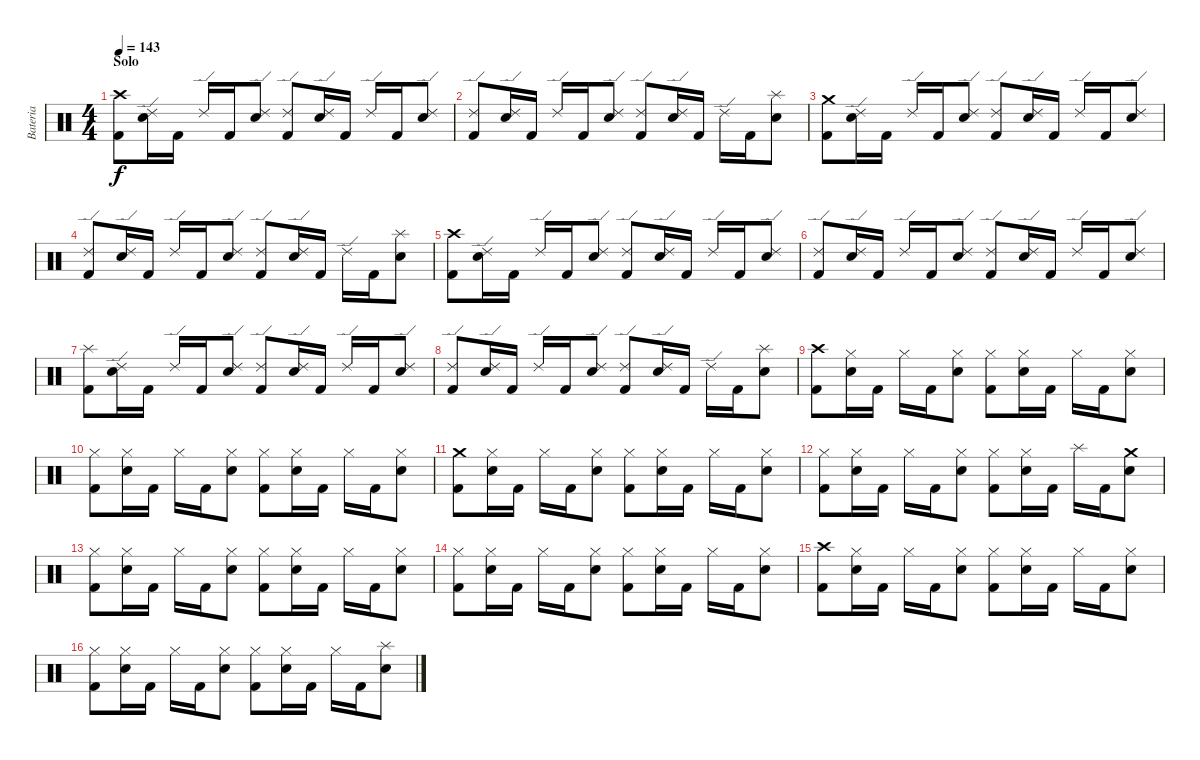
\track ("Bateria" "Bateria") {instrument percussion}
\staff {score}
\articulation defaults
\ts (4 4)
\section ("" "Solo")
\tempo 143
\clef neutral
\ks c
("Crash high (hit)" "Kick (hit) 2").8{dy f} ("Ride (edge) 2" "Snare (hit) 2").16 "Kick (hit) 2".16 "Ride (edge) 2".16 "Kick (hit) 2".16 ("Ride (edge) 2" "Snare (hit) 2").8 ("Ride (edge) 2" "Kick (hit) 2").8 ("Ride (edge) 2" "Snare (hit) 2").16 "Kick (hit) 2".16 "Ride (edge) 2".16 "Kick (hit) 2".16 ("Ride (edge) 2" "Snare (hit) 2").8 |
("Ride (edge) 2" "Kick (hit) 2").8 ("Ride (edge) 2" "Snare (hit) 2").16 "Kick (hit) 2".16 "Ride (edge) 2".16 "Kick (hit) 2".16 ("Ride (edge) 2" "Snare (hit) 2").8 ("Ride (edge) 2" "Kick (hit) 2").8 ("Ride (edge) 2" "Snare (hit) 2").16 "Kick (hit) 2".16 "Ride (edge) 2".16 "Kick (hit) 2".16 ("Splash (hit)" "Snare (hit) 2").8 |
("Crash medium (hit)" "Kick (hit) 2").8 ("Ride (edge) 2" "Snare (hit) 2").16 "Kick (hit) 2".16 "Ride (edge) 2".16 "Kick (hit) 2".16 ("Ride (edge) 2" "Snare (hit) 2").8 ("Ride (edge) 2" "Kick (hit) 2").8 ("Ride (edge) 2" "Snare (hit) 2").16 "Kick (hit) 2".16 "Ride (edge) 2".16 "Kick (hit) 2".16 ("Ride (edge) 2" "Snare (hit) 2").8 |
("Ride (edge) 2" "Kick (hit) 2").8 ("Ride (edge) 2" "Snare (hit) 2").16 "Kick (hit) 2".16 "Ride (edge) 2".16 "Kick (hit) 2".16 ("Ride (edge) 2" "Snare (hit) 2").8 ("Ride (edge) 2" "Kick (hit) 2").8 ("Ride (edge) 2" "Snare (hit) 2").16 "Kick (hit) 2".16 "Ride (edge) 2".16 "Kick (hit) 2".16 ("Splash (hit)" "Snare (hit) 2").8 |
("Crash high (hit)" "Kick (hit) 2").8 ("Ride (edge) 2" "Snare (hit) 2").16 "Kick (hit) 2".16 "Ride (edge) 2".16 "Kick (hit) 2".16 ("Ride (edge) 2" "Snare (hit) 2").8 ("Ride (edge) 2" "Kick (hit) 2").8 ("Ride (edge) 2" "Snare (hit) 2").16 "Kick (hit) 2".16 "Ride (edge) 2".16 "Kick (hit) 2".16 ("Ride (edge) 2" "Snare (hit) 2").8 |
("Ride (edge) 2" "Kick (hit) 2").8 ("Ride (edge) 2" "Snare (hit) 2").16 "Kick (hit) 2".16 "Ride (edge) 2".16 "Kick (hit) 2".16 ("Ride (edge) 2" "Snare (hit) 2").8 ("Ride (edge) 2" "Kick (hit) 2").8 ("Ride (edge) 2" "Snare (hit) 2").16 "Kick (hit) 2".16 "Ride (edge) 2".16 "Kick (hit) 2".16 ("Ride (edge) 2" "Snare (hit) 2").8 |
("Splash (hit)" "Kick (hit) 2").8 ("Ride (edge) 2" "Snare (hit) 2").16 "Kick (hit) 2".16 "Ride (edge) 2".16 "Kick (hit) 2".16 ("Ride (edge) 2" "Snare (hit) 2").8 ("Ride (edge) 2" "Kick (hit) 2").8 ("Ride (edge) 2" "Snare (hit) 2").16 "Kick (hit) 2".16 "Ride (edge) 2".16 "Kick (hit) 2".16 ("Ride (edge) 2" "Snare (hit) 2").8 |
("Ride (edge) 2" "Kick (hit) 2").8 ("Ride (edge) 2" "Snare (hit) 2").16 "Kick (hit) 2".16 "Ride (edge) 2".16 "Kick (hit) 2".16 ("Ride (edge) 2" "Snare (hit) 2").8 ("Ride (edge) 2" "Kick (hit) 2").8 ("Ride (edge) 2" "Snare (hit) 2").16 "Kick (hit) 2".16 "Ride (edge) 2".16 "Kick (hit) 2".16 ("Splash (hit)" "Snare (hit) 2").8 |
("Crash high (hit)" "Kick (hit) 2").8 ("Hi-Hat (closed)" "Snare (hit) 2").16 "Kick (hit) 2".16 "Hi-Hat (closed)".16 "Kick (hit) 2".16 ("Hi-Hat (closed)" "Snare (hit) 2").8 ("Hi-Hat (closed)" "Kick (hit) 2").8 ("Hi-Hat (closed)" "Snare (hit) 2").16 "Kick (hit) 2".16 "Hi-Hat (closed)".16 "Kick (hit) 2".16 ("Hi-Hat (closed)" "Snare (hit) 2").8 |
("Hi-Hat (closed)" "Kick (hit) 2").8 ("Hi-Hat (closed)" "Snare (hit) 2").16 "Kick (hit) 2".16 "Hi-Hat (closed)".16 "Kick (hit) 2".16 ("Hi-Hat (closed)" "Snare (hit) 2").8 ("Hi-Hat (closed)" "Kick (hit) 2").8 ("Hi-Hat (closed)" "Snare (hit) 2").16 "Kick (hit) 2".16 "Hi-Hat (closed)".16 "Kick (hit) 2".16 ("Hi-Hat (closed)" "Snare (hit) 2").8 |
("Crash medium (hit)" "Kick (hit) 2").8 ("Hi-Hat (closed)" "Snare (hit) 2").16 "Kick (hit) 2".16 "Hi-Hat (closed)".16 "Kick (hit) 2".16 ("Hi-Hat (closed)" "Snare (hit) 2").8 ("Hi-Hat (closed)" "Kick (hit) 2").8 ("Hi-Hat (closed)" "Snare (hit) 2").16 "Kick (hit) 2".16 "Hi-Hat (closed)".16 "Kick (hit) 2".16 ("Hi-Hat (closed)" "Snare (hit) 2").8 |
("Hi-Hat (closed)" "Kick (hit) 2").8 ("Hi-Hat (closed)" "Snare (hit) 2").16 "Kick (hit) 2".16 "Hi-Hat (closed)".16 "Kick (hit) 2".16 ("Hi-Hat (closed)" "Snare (hit) 2").8 ("Hi-Hat (closed)" "Kick (hit) 2").8 ("Hi-Hat (closed)" "Snare (hit) 2").16 "Kick (hit) 2".16 "Splash (hit)".16 "Kick (hit) 2".16 ("Crash medium (hit)" "Snare (hit) 2").8 |
("Hi-Hat (closed)" "Kick (hit) 2").8 ("Hi-Hat (closed)" "Snare (hit) 2").16 "Kick (hit) 2".16 "Hi-Hat (closed)".16 "Kick (hit) 2".16 ("Hi-Hat (closed)" "Snare (hit) 2").8 ("Hi-Hat (closed)" "Kick (hit) 2").8 ("Hi-Hat (closed)" "Snare (hit) 2").16 "Kick (hit) 2".16 "Hi-Hat (closed)".16 "Kick (hit) 2".16 ("Hi-Hat (closed)" "Snare (hit) 2").8 |
("Hi-Hat (closed)" "Kick (hit) 2").8 ("Hi-Hat (closed)" "Snare (hit) 2").16 "Kick (hit) 2".16 "Hi-Hat (closed)".16 "Kick (hit) 2".16 ("Hi-Hat (closed)" "Snare (hit) 2").8 ("Hi-Hat (closed)" "Kick (hit) 2").8 ("Hi-Hat (closed)" "Snare (hit) 2").16 "Kick (hit) 2".16 "Hi-Hat (closed)".16 "Kick (hit) 2".16 ("Hi-Hat (closed)" "Snare (hit) 2").8 |
("Crash high (hit)" "Kick (hit) 2").8 ("Hi-Hat (closed)" "Snare (hit) 2").16 "Kick (hit) 2".16 "Hi-Hat (closed)".16 "Kick (hit) 2".16 ("Hi-Hat (closed)" "Snare (hit) 2").8 ("Hi-Hat (closed)" "Kick (hit) 2").8 ("Hi-Hat (closed)" "Snare (hit) 2").16 "Kick (hit) 2".16 "Hi-Hat (closed)".16 "Kick (hit) 2".16 ("Hi-Hat (closed)" "Snare (hit) 2").8 |
("Hi-Hat (closed)" "Kick (hit) 2").8 ("Hi-Hat (closed)" "Snare (hit) 2").16 "Kick (hit) 2".16 "Hi-Hat (closed)".16 "Kick (hit) 2".16 ("Hi-Hat (closed)" "Snare (hit) 2").8 ("Hi-Hat (closed)" "Kick (hit) 2").8 ("Hi-Hat (closed)" "Snare (hit) 2").16 "Kick (hit) 2".16 "Hi-Hat (closed)".16 "Kick (hit) 2".16 ("Splash (hit)" "Snare (hit) 2").8
